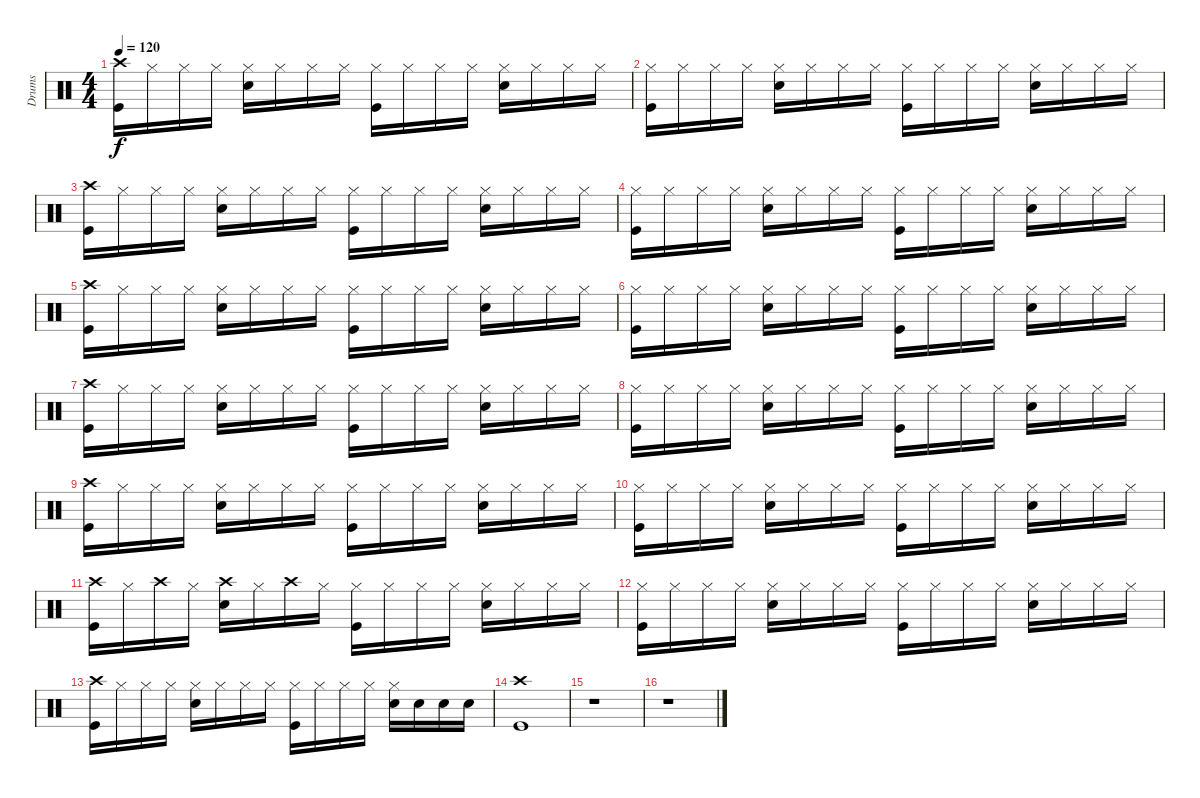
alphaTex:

\track ("Drums" "Drums") {instrument percussion}
\staff {score}
\articulation defaults
\ts (4 4)
\tempo 120
\clef neutral
\ks c
("Crash high (hit)" "Kick (hit)").16{dy f} "Hi-Hat (closed)".16 "Hi-Hat (closed)".16 "Hi-Hat (closed)".16 ("Hi-Hat (closed)" "Electric Snare (hit)").16 "Hi-Hat (closed)".16 "Hi-Hat (closed)".16 "Hi-Hat (closed)".16 ("Hi-Hat (closed)" "Kick (hit)").16 "Hi-Hat (closed)".16 "Hi-Hat (closed)".16 "Hi-Hat (closed)".16 ("Hi-Hat (closed)" "Electric Snare (hit)").16 "Hi-Hat (closed)".16 "Hi-Hat (closed)".16 "Hi-Hat (closed)".16 |
("Hi-Hat (closed)" "Kick (hit)").16 "Hi-Hat (closed)".16 "Hi-Hat (closed)".16 "Hi-Hat (closed)".16 ("Hi-Hat (closed)" "Electric Snare (hit)").16 "Hi-Hat (closed)".16 "Hi-Hat (closed)".16 "Hi-Hat (closed)".16 ("Hi-Hat (closed)" "Kick (hit)").16 "Hi-Hat (closed)".16 "Hi-Hat (closed)".16 "Hi-Hat (closed)".16 ("Hi-Hat (closed)" "Electric Snare (hit)").16 "Hi-Hat (closed)".16 "Hi-Hat (closed)".16 "Hi-Hat (closed)".16 |
("Crash high (hit)" "Kick (hit)").16 "Hi-Hat (closed)".16 "Hi-Hat (closed)".16 "Hi-Hat (closed)".16 ("Hi-Hat (closed)" "Electric Snare (hit)").16 "Hi-Hat (closed)".16 "Hi-Hat (closed)".16 "Hi-Hat (closed)".16 ("Hi-Hat (closed)" "Kick (hit)").16 "Hi-Hat (closed)".16 "Hi-Hat (closed)".16 "Hi-Hat (closed)".16 ("Hi-Hat (closed)" "Electric Snare (hit)").16 "Hi-Hat (closed)".16 "Hi-Hat (closed)".16 "Hi-Hat (closed)".16 |
("Hi-Hat (closed)" "Kick (hit)").16 "Hi-Hat (closed)".16 "Hi-Hat (closed)".16 "Hi-Hat (closed)".16 ("Hi-Hat (closed)" "Electric Snare (hit)").16 "Hi-Hat (closed)".16 "Hi-Hat (closed)".16 "Hi-Hat (closed)".16 ("Hi-Hat (closed)" "Kick (hit)").16 "Hi-Hat (closed)".16 "Hi-Hat (closed)".16 "Hi-Hat (closed)".16 ("Hi-Hat (closed)" "Electric Snare (hit)").16 "Hi-Hat (closed)".16 "Hi-Hat (closed)".16 "Hi-Hat (closed)".16 |
("Crash high (hit)" "Kick (hit)").16 "Hi-Hat (closed)".16 "Hi-Hat (closed)".16 "Hi-Hat (closed)".16 ("Hi-Hat (closed)" "Electric Snare (hit)").16 "Hi-Hat (closed)".16 "Hi-Hat (closed)".16 "Hi-Hat (closed)".16 ("Hi-Hat (closed)" "Kick (hit)").16 "Hi-Hat (closed)".16 "Hi-Hat (closed)".16 "Hi-Hat (closed)".16 ("Hi-Hat (closed)" "Electric Snare (hit)").16 "Hi-Hat (closed)".16 "Hi-Hat (closed)".16 "Hi-Hat (closed)".16 |
("Hi-Hat (closed)" "Kick (hit)").16 "Hi-Hat (closed)".16 "Hi-Hat (closed)".16 "Hi-Hat (closed)".16 ("Hi-Hat (closed)" "Electric Snare (hit)").16 "Hi-Hat (closed)".16 "Hi-Hat (closed)".16 "Hi-Hat (closed)".16 ("Hi-Hat (closed)" "Kick (hit)").16 "Hi-Hat (closed)".16 "Hi-Hat (closed)".16 "Hi-Hat (closed)".16 ("Hi-Hat (closed)" "Electric Snare (hit)").16 "Hi-Hat (closed)".16 "Hi-Hat (closed)".16 "Hi-Hat (closed)".16 |
("Crash high (hit)" "Kick (hit)").16 "Hi-Hat (closed)".16 "Hi-Hat (closed)".16 "Hi-Hat (closed)".16 ("Hi-Hat (closed)" "Electric Snare (hit)").16 "Hi-Hat (closed)".16 "Hi-Hat (closed)".16 "Hi-Hat (closed)".16 ("Hi-Hat (closed)" "Kick (hit)").16 "Hi-Hat (closed)".16 "Hi-Hat (closed)".16 "Hi-Hat (closed)".16 ("Hi-Hat (closed)" "Electric Snare (hit)").16 "Hi-Hat (closed)".16 "Hi-Hat (closed)".16 "Hi-Hat (closed)".16 |
("Hi-Hat (closed)" "Kick (hit)").16 "Hi-Hat (closed)".16 "Hi-Hat (closed)".16 "Hi-Hat (closed)".16 ("Hi-Hat (closed)" "Electric Snare (hit)").16 "Hi-Hat (closed)".16 "Hi-Hat (closed)".16 "Hi-Hat (closed)".16 ("Hi-Hat (closed)" "Kick (hit)").16 "Hi-Hat (closed)".16 "Hi-Hat (closed)".16 "Hi-Hat (closed)".16 ("Hi-Hat (closed)" "Electric Snare (hit)").16 "Hi-Hat (closed)".16 "Hi-Hat (closed)".16 "Hi-Hat (closed)".16 |
("Crash high (hit)" "Kick (hit)").16 "Hi-Hat (closed)".16 "Hi-Hat (closed)".16 "Hi-Hat (closed)".16 ("Hi-Hat (closed)" "Electric Snare (hit)").16 "Hi-Hat (closed)".16 "Hi-Hat (closed)".16 "Hi-Hat (closed)".16 ("Hi-Hat (closed)" "Kick (hit)").16 "Hi-Hat (closed)".16 "Hi-Hat (closed)".16 "Hi-Hat (closed)".16 ("Hi-Hat (closed)" "Electric Snare (hit)").16 "Hi-Hat (closed)".16 "Hi-Hat (closed)".16 "Hi-Hat (closed)".16 |
("Hi-Hat (closed)" "Kick (hit)").16 "Hi-Hat (closed)".16 "Hi-Hat (closed)".16 "Hi-Hat (closed)".16 ("Hi-Hat (closed)" "Electric Snare (hit)").16 "Hi-Hat (closed)".16 "Hi-Hat (closed)".16 "Hi-Hat (closed)".16 ("Hi-Hat (closed)" "Kick (hit)").16 "Hi-Hat (closed)".16 "Hi-Hat (closed)".16 "Hi-Hat (closed)".16 ("Hi-Hat (closed)" "Electric Snare (hit)").16 "Hi-Hat (closed)".16 "Hi-Hat (closed)".16 "Hi-Hat (closed)".16 |
("Crash high (hit)" "Kick (hit)").16 "Hi-Hat (closed)".16 "Crash high (hit)".16 "Hi-Hat (closed)".16 ("Crash high (hit)" "Electric Snare (hit)").16 "Hi-Hat (closed)".16 "Crash high (hit)".16 "Hi-Hat (closed)".16 ("Hi-Hat (closed)" "Kick (hit)").16 "Hi-Hat (closed)".16 "Hi-Hat (closed)".16 "Hi-Hat (closed)".16 ("Hi-Hat (closed)" "Electric Snare (hit)").16 "Hi-Hat (closed)".16 "Hi-Hat (closed)".16 "Hi-Hat (closed)".16 |
("Hi-Hat (closed)" "Kick (hit)").16 "Hi-Hat (closed)".16 "Hi-Hat (closed)".16 "Hi-Hat (closed)".16 ("Hi-Hat (closed)" "Electric Snare (hit)").16 "Hi-Hat (closed)".16 "Hi-Hat (closed)".16 "Hi-Hat (closed)".16 ("Hi-Hat (closed)" "Kick (hit)").16 "Hi-Hat (closed)".16 "Hi-Hat (closed)".16 "Hi-Hat (closed)".16 ("Hi-Hat (closed)" "Electric Snare (hit)").16 "Hi-Hat (closed)".16 "Hi-Hat (closed)".16 "Hi-Hat (closed)".16 |
("Crash high (hit)" "Kick (hit)").16 "Hi-Hat (closed)".16 "Hi-Hat (closed)".16 "Hi-Hat (closed)".16 ("Hi-Hat (closed)" "Electric Snare (hit)").16 "Hi-Hat (closed)".16 "Hi-Hat (closed)".16 "Hi-Hat (closed)".16 ("Hi-Hat (closed)" "Kick (hit)").16 "Hi-Hat (closed)".16 "Hi-Hat (closed)".16 "Hi-Hat (closed)".16 ("Hi-Hat (closed)" "Electric Snare (hit)").16 "Electric Snare (hit)".16 "Electric Snare (hit)".16 "Electric Snare (hit)".16 |
("Crash high (hit)" "Kick (hit)").1 |
r.1 |
r.1
